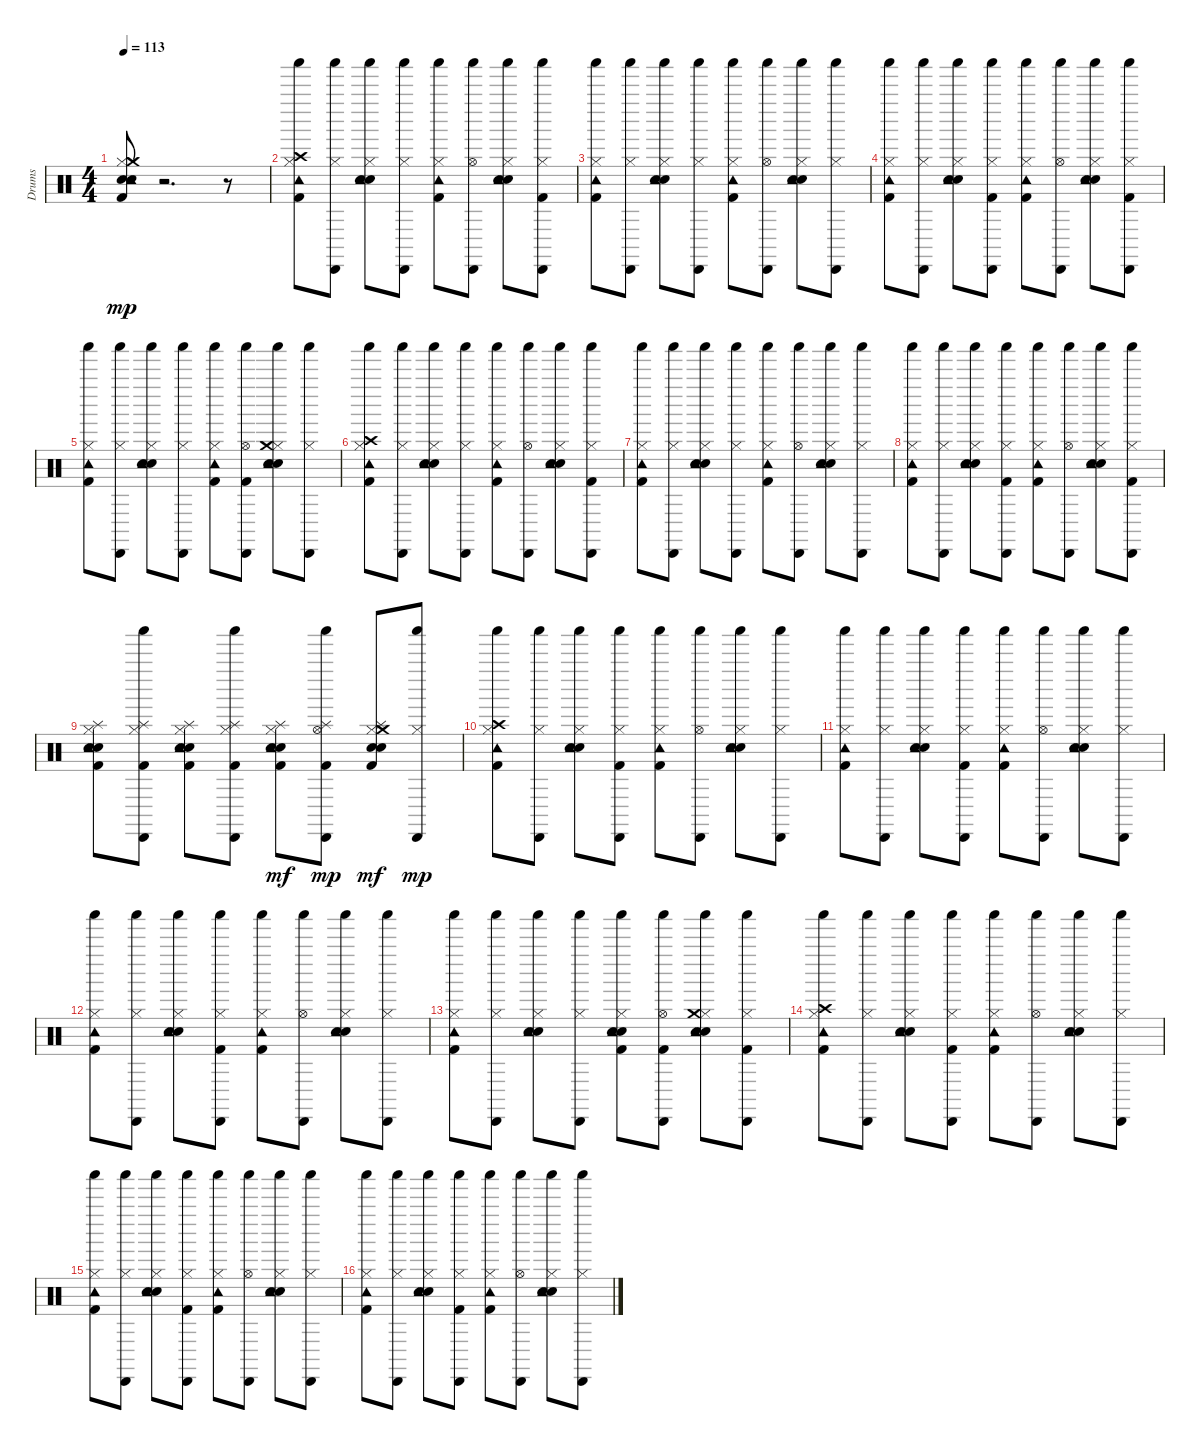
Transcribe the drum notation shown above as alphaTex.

\track ("Drums" "Drums") {instrument percussion}
\staff {score}
\articulation defaults
\ts (4 4)
\tempo 113
\clef neutral
\ks c
("Kick (hit) 2" "Snare (hit) 2" "Hand Clap (hit)" "Hi-Hat (closed)" "Crash medium (hit)" "Tambourine (hit)").8{dy mp} r.2{d} r.8 |
("Kick (hit) 2" "Hi-Hat (closed)" "Crash high (hit)" "Tambourine (hit)" "Shaker (hit)").8 ("Hi-Hat (closed)" "Shaker (hit)" "Cabasa (hit)").8 ("Hand Clap (hit)" "Snare (hit) 2" "Hi-Hat (closed)" "Tambourine (hit)" "Shaker (hit)").8 ("Hi-Hat (closed)" "Shaker (hit)" "Cabasa (hit)").8 ("Kick (hit) 2" "Hi-Hat (closed)" "Tambourine (hit)" "Shaker (hit)").8 ("Hi-Hat (open)" "Shaker (hit)" "Cabasa (hit)").8 ("Hand Clap (hit)" "Snare (hit) 2" "Hi-Hat (closed)" "Tambourine (hit)" "Shaker (hit)").8 ("Hi-Hat (closed)" "Shaker (hit)" "Kick (hit) 2" "Cabasa (hit)").8 |
("Kick (hit) 2" "Hi-Hat (closed)" "Tambourine (hit)" "Shaker (hit)").8 ("Hi-Hat (closed)" "Shaker (hit)" "Cabasa (hit)").8 ("Hand Clap (hit)" "Snare (hit) 2" "Hi-Hat (closed)" "Tambourine (hit)" "Shaker (hit)").8 ("Hi-Hat (closed)" "Shaker (hit)" "Cabasa (hit)").8 ("Kick (hit) 2" "Hi-Hat (closed)" "Tambourine (hit)" "Shaker (hit)").8 ("Hi-Hat (open)" "Shaker (hit)" "Cabasa (hit)").8 ("Hand Clap (hit)" "Snare (hit) 2" "Hi-Hat (closed)" "Tambourine (hit)" "Shaker (hit)").8 ("Hi-Hat (closed)" "Shaker (hit)" "Cabasa (hit)").8 |
("Kick (hit) 2" "Hi-Hat (closed)" "Tambourine (hit)" "Shaker (hit)").8 ("Hi-Hat (closed)" "Shaker (hit)" "Cabasa (hit)").8 ("Hand Clap (hit)" "Snare (hit) 2" "Hi-Hat (closed)" "Tambourine (hit)" "Shaker (hit)").8 ("Hi-Hat (closed)" "Shaker (hit)" "Kick (hit) 2" "Cabasa (hit)").8 ("Kick (hit) 2" "Hi-Hat (closed)" "Tambourine (hit)" "Shaker (hit)").8 ("Hi-Hat (open)" "Shaker (hit)" "Cabasa (hit)").8 ("Hand Clap (hit)" "Snare (hit) 2" "Hi-Hat (closed)" "Tambourine (hit)" "Shaker (hit)").8 ("Hi-Hat (closed)" "Shaker (hit)" "Kick (hit) 2" "Cabasa (hit)").8 |
("Kick (hit) 2" "Hi-Hat (closed)" "Tambourine (hit)" "Shaker (hit)").8 ("Hi-Hat (closed)" "Shaker (hit)" "Cabasa (hit)").8 ("Hand Clap (hit)" "Snare (hit) 2" "Hi-Hat (closed)" "Tambourine (hit)" "Shaker (hit)").8 ("Hi-Hat (closed)" "Shaker (hit)" "Cabasa (hit)").8 ("Kick (hit) 2" "Hi-Hat (closed)" "Tambourine (hit)" "Shaker (hit)").8 ("Kick (hit) 2" "Hi-Hat (open)" "Shaker (hit)" "Cabasa (hit)").8 ("Hand Clap (hit)" "Snare (hit) 2" "Hi-Hat (closed)" "Crash medium (hit)" "Tambourine (hit)" "Shaker (hit)").8 ("Hi-Hat (closed)" "Shaker (hit)" "Cabasa (hit)").8 |
("Kick (hit) 2" "Hi-Hat (closed)" "Crash high (hit)" "Tambourine (hit)" "Shaker (hit)").8 ("Hi-Hat (closed)" "Shaker (hit)" "Cabasa (hit)").8 ("Hand Clap (hit)" "Snare (hit) 2" "Hi-Hat (closed)" "Tambourine (hit)" "Shaker (hit)").8 ("Hi-Hat (closed)" "Shaker (hit)" "Cabasa (hit)").8 ("Kick (hit) 2" "Hi-Hat (closed)" "Tambourine (hit)" "Shaker (hit)").8 ("Hi-Hat (open)" "Shaker (hit)" "Cabasa (hit)").8 ("Hand Clap (hit)" "Snare (hit) 2" "Hi-Hat (closed)" "Tambourine (hit)" "Shaker (hit)").8 ("Hi-Hat (closed)" "Shaker (hit)" "Kick (hit) 2" "Cabasa (hit)").8 |
("Kick (hit) 2" "Hi-Hat (closed)" "Tambourine (hit)" "Shaker (hit)").8 ("Hi-Hat (closed)" "Shaker (hit)" "Cabasa (hit)").8 ("Hand Clap (hit)" "Snare (hit) 2" "Hi-Hat (closed)" "Tambourine (hit)" "Shaker (hit)").8 ("Hi-Hat (closed)" "Shaker (hit)" "Cabasa (hit)").8 ("Kick (hit) 2" "Hi-Hat (closed)" "Tambourine (hit)" "Shaker (hit)").8 ("Hi-Hat (open)" "Shaker (hit)" "Cabasa (hit)").8 ("Hand Clap (hit)" "Snare (hit) 2" "Hi-Hat (closed)" "Tambourine (hit)" "Shaker (hit)").8 ("Hi-Hat (closed)" "Shaker (hit)" "Cabasa (hit)").8 |
("Kick (hit) 2" "Hi-Hat (closed)" "Tambourine (hit)" "Shaker (hit)").8 ("Hi-Hat (closed)" "Shaker (hit)" "Cabasa (hit)").8 ("Hand Clap (hit)" "Snare (hit) 2" "Hi-Hat (closed)" "Tambourine (hit)" "Shaker (hit)").8 ("Hi-Hat (closed)" "Shaker (hit)" "Kick (hit) 2" "Cabasa (hit)").8 ("Kick (hit) 2" "Hi-Hat (closed)" "Tambourine (hit)" "Shaker (hit)").8 ("Hi-Hat (open)" "Shaker (hit)" "Cabasa (hit)").8 ("Hand Clap (hit)" "Snare (hit) 2" "Hi-Hat (closed)" "Tambourine (hit)" "Shaker (hit)").8 ("Hi-Hat (closed)" "Shaker (hit)" "Kick (hit) 2" "Cabasa (hit)").8 |
("Kick (hit) 2" "Snare (hit) 2" "Hand Clap (hit)" "Hi-Hat (closed)" "Splash (hit)" "Tambourine (hit)").8 ("Hi-Hat (closed)" "Splash (hit)" "Shaker (hit)" "Kick (hit) 2" "Cabasa (hit)").8 ("Kick (hit) 2" "Snare (hit) 2" "Hand Clap (hit)" "Hi-Hat (closed)" "Splash (hit)" "Tambourine (hit)").8 ("Hi-Hat (closed)" "Splash (hit)" "Shaker (hit)" "Kick (hit) 2" "Cabasa (hit)").8 ("Kick (hit) 2" "Snare (hit) 2" "Hand Clap (hit)" "Hi-Hat (closed)" "Splash (hit)" "Tambourine (hit)").8{dy mf} ("Hi-Hat (open)" "Splash (hit)" "Shaker (hit)" "Kick (hit) 2" "Cabasa (hit)").8{dy mp} ("Kick (hit) 2" "Hand Clap (hit)" "Snare (hit) 2" "Hi-Hat (closed)" "Splash (hit)" "Crash medium (hit)").8{dy mf} ("Hi-Hat (closed)" "Shaker (hit)" "Cabasa (hit)").8{dy mp} |
("Kick (hit) 2" "Hi-Hat (closed)" "Crash high (hit)" "Tambourine (hit)" "Shaker (hit)").8 ("Hi-Hat (closed)" "Shaker (hit)" "Cabasa (hit)").8 ("Hand Clap (hit)" "Snare (hit) 2" "Hi-Hat (closed)" "Tambourine (hit)" "Shaker (hit)").8 ("Hi-Hat (closed)" "Shaker (hit)" "Kick (hit) 2" "Cabasa (hit)").8 ("Kick (hit) 2" "Hi-Hat (closed)" "Tambourine (hit)" "Shaker (hit)").8 ("Hi-Hat (open)" "Shaker (hit)" "Cabasa (hit)").8 ("Hand Clap (hit)" "Snare (hit) 2" "Hi-Hat (closed)" "Tambourine (hit)" "Shaker (hit)").8 ("Hi-Hat (closed)" "Shaker (hit)" "Cabasa (hit)").8 |
("Kick (hit) 2" "Hi-Hat (closed)" "Tambourine (hit)" "Shaker (hit)").8 ("Hi-Hat (closed)" "Shaker (hit)" "Cabasa (hit)").8 ("Hand Clap (hit)" "Snare (hit) 2" "Hi-Hat (closed)" "Tambourine (hit)" "Shaker (hit)").8 ("Hi-Hat (closed)" "Shaker (hit)" "Kick (hit) 2" "Cabasa (hit)").8 ("Kick (hit) 2" "Hi-Hat (closed)" "Tambourine (hit)" "Shaker (hit)").8 ("Hi-Hat (open)" "Shaker (hit)" "Cabasa (hit)").8 ("Hand Clap (hit)" "Snare (hit) 2" "Hi-Hat (closed)" "Tambourine (hit)" "Shaker (hit)").8 ("Hi-Hat (closed)" "Shaker (hit)" "Cabasa (hit)").8 |
("Kick (hit) 2" "Hi-Hat (closed)" "Tambourine (hit)" "Shaker (hit)").8 ("Hi-Hat (closed)" "Shaker (hit)" "Cabasa (hit)").8 ("Hand Clap (hit)" "Snare (hit) 2" "Hi-Hat (closed)" "Tambourine (hit)" "Shaker (hit)").8 ("Hi-Hat (closed)" "Shaker (hit)" "Kick (hit) 2" "Cabasa (hit)").8 ("Kick (hit) 2" "Hi-Hat (closed)" "Tambourine (hit)" "Shaker (hit)").8 ("Hi-Hat (open)" "Shaker (hit)" "Cabasa (hit)").8 ("Hand Clap (hit)" "Snare (hit) 2" "Hi-Hat (closed)" "Tambourine (hit)" "Shaker (hit)").8 ("Hi-Hat (closed)" "Shaker (hit)" "Cabasa (hit)").8 |
("Kick (hit) 2" "Hi-Hat (closed)" "Tambourine (hit)" "Shaker (hit)").8 ("Hi-Hat (closed)" "Shaker (hit)" "Cabasa (hit)").8 ("Hand Clap (hit)" "Snare (hit) 2" "Hi-Hat (closed)" "Tambourine (hit)" "Shaker (hit)").8 ("Hi-Hat (closed)" "Shaker (hit)" "Cabasa (hit)").8 ("Kick (hit) 2" "Hand Clap (hit)" "Snare (hit) 2" "Hi-Hat (closed)" "Tambourine (hit)" "Shaker (hit)").8 ("Kick (hit) 2" "Hi-Hat (open)" "Shaker (hit)" "Cabasa (hit)").8 ("Hand Clap (hit)" "Snare (hit) 2" "Hi-Hat (closed)" "Crash medium (hit)" "Tambourine (hit)" "Shaker (hit)").8 ("Kick (hit) 2" "Hi-Hat (closed)" "Shaker (hit)" "Cabasa (hit)").8 |
("Kick (hit) 2" "Hi-Hat (closed)" "Crash high (hit)" "Tambourine (hit)" "Shaker (hit)").8 ("Hi-Hat (closed)" "Shaker (hit)" "Cabasa (hit)").8 ("Hand Clap (hit)" "Snare (hit) 2" "Hi-Hat (closed)" "Tambourine (hit)" "Shaker (hit)").8 ("Hi-Hat (closed)" "Shaker (hit)" "Kick (hit) 2" "Cabasa (hit)").8 ("Kick (hit) 2" "Hi-Hat (closed)" "Tambourine (hit)" "Shaker (hit)").8 ("Hi-Hat (open)" "Shaker (hit)" "Cabasa (hit)").8 ("Hand Clap (hit)" "Snare (hit) 2" "Hi-Hat (closed)" "Tambourine (hit)" "Shaker (hit)").8 ("Hi-Hat (closed)" "Shaker (hit)" "Cabasa (hit)").8 |
("Kick (hit) 2" "Hi-Hat (closed)" "Tambourine (hit)" "Shaker (hit)").8 ("Hi-Hat (closed)" "Shaker (hit)" "Cabasa (hit)").8 ("Hand Clap (hit)" "Snare (hit) 2" "Hi-Hat (closed)" "Tambourine (hit)" "Shaker (hit)").8 ("Hi-Hat (closed)" "Shaker (hit)" "Kick (hit) 2" "Cabasa (hit)").8 ("Kick (hit) 2" "Hi-Hat (closed)" "Tambourine (hit)" "Shaker (hit)").8 ("Hi-Hat (open)" "Shaker (hit)" "Cabasa (hit)").8 ("Hand Clap (hit)" "Snare (hit) 2" "Hi-Hat (closed)" "Tambourine (hit)" "Shaker (hit)").8 ("Hi-Hat (closed)" "Shaker (hit)" "Cabasa (hit)").8 |
("Kick (hit) 2" "Hi-Hat (closed)" "Tambourine (hit)" "Shaker (hit)").8 ("Hi-Hat (closed)" "Shaker (hit)" "Cabasa (hit)").8 ("Hand Clap (hit)" "Snare (hit) 2" "Hi-Hat (closed)" "Tambourine (hit)" "Shaker (hit)").8 ("Hi-Hat (closed)" "Shaker (hit)" "Kick (hit) 2" "Cabasa (hit)").8 ("Kick (hit) 2" "Hi-Hat (closed)" "Tambourine (hit)" "Shaker (hit)").8 ("Hi-Hat (open)" "Shaker (hit)" "Cabasa (hit)").8 ("Hand Clap (hit)" "Snare (hit) 2" "Hi-Hat (closed)" "Tambourine (hit)" "Shaker (hit)").8 ("Hi-Hat (closed)" "Shaker (hit)" "Cabasa (hit)").8
